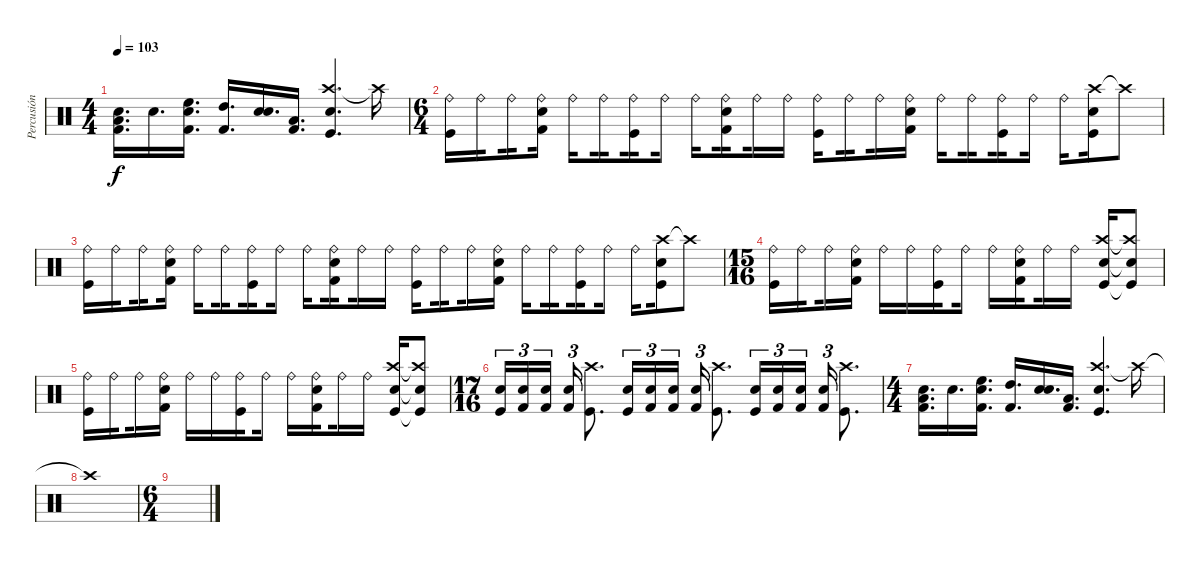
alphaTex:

\track ("Percusión" "Percusión") {instrument percussion}
\staff {score}
\articulation defaults
\ts (4 4)
\tempo 103
\clef neutral
\ks c
("Low Floor Tom (hit)" "Kick (hit) 2" "Snare (hit) 2").16{d dy f} "Snare (hit) 2".16{d} ("High Floor Tom (hit)" "Kick (hit) 2" "Snare (hit) 2").16{d} ("High Tom (hit)" "Kick (hit) 2").16{d} ("Snare (hit) 2" "Snare (hit) 2").16{d} ("Low Floor Tom (hit)" "Kick (hit) 2").16{d} ("Crash high (hit)" "Kick (hit)" "Snare (hit) 2").4{d} "Crash high (hit)"{t}.16 |
\ts (6 4)
("Ride (bell)" "Kick (hit)").16 "Ride (bell)".16{beam splitsecondary} "Ride (bell)".16{beam splitsecondary} ("Ride (bell)" "Snare (hit) 2" "Kick (hit) 2").16{beam splitsecondary} "Ride (bell)".16{beam splitsecondary} "Ride (bell)".16{beam splitsecondary} ("Ride (bell)" "Kick (hit)").16{beam splitsecondary} "Ride (bell)".16 "Ride (bell)".16{beam splitsecondary} ("Ride (bell)" "Snare (hit) 2" "Kick (hit) 2").16{beam splitsecondary} "Ride (bell)".16 "Ride (bell)".16 ("Ride (bell)" "Kick (hit)").16{beam splitsecondary} "Ride (bell)".16{beam splitsecondary} "Ride (bell)".16 ("Ride (bell)" "Snare (hit) 2" "Kick (hit) 2").16{beam splitsecondary} "Ride (bell)".16{beam splitsecondary} "Ride (bell)".16{beam splitsecondary} ("Ride (bell)" "Kick (hit)").16{beam splitsecondary} "Ride (bell)".16{beam splitsecondary} "Ride (bell)".16{beam splitsecondary} ("Crash high (hit)" "Snare (hit) 2" "Kick (hit)").16 "Crash high (hit)"{t}.8 |
("Ride (bell)" "Kick (hit)").16 "Ride (bell)".16{beam splitsecondary} "Ride (bell)".16{beam splitsecondary} ("Ride (bell)" "Snare (hit) 2" "Kick (hit) 2").16{beam splitsecondary} "Ride (bell)".16{beam splitsecondary} "Ride (bell)".16{beam splitsecondary} ("Ride (bell)" "Kick (hit)").16{beam splitsecondary} "Ride (bell)".16 "Ride (bell)".16{beam splitsecondary} ("Ride (bell)" "Snare (hit) 2" "Kick (hit) 2").16{beam splitsecondary} "Ride (bell)".16 "Ride (bell)".16 ("Ride (bell)" "Kick (hit)").16{beam splitsecondary} "Ride (bell)".16{beam splitsecondary} "Ride (bell)".16 ("Ride (bell)" "Snare (hit) 2" "Kick (hit) 2").16{beam splitsecondary} "Ride (bell)".16{beam splitsecondary} "Ride (bell)".16{beam splitsecondary} ("Ride (bell)" "Kick (hit)").16{beam splitsecondary} "Ride (bell)".16{beam splitsecondary} "Ride (bell)".16{beam splitsecondary} ("Crash high (hit)" "Snare (hit) 2" "Kick (hit)").16 "Crash high (hit)"{t}.8 |
\ts (15 16)
("Ride (bell)" "Kick (hit)").16 "Ride (bell)".16{beam splitsecondary} "Ride (bell)".16 ("Ride (bell)" "Snare (hit) 2" "Kick (hit) 2").16{beam splitsecondary} "Ride (bell)".16 "Ride (bell)".16 ("Ride (bell)" "Kick (hit)").16{beam splitsecondary} "Ride (bell)".16 "Ride (bell)".16 ("Ride (bell)" "Snare (hit) 2" "Kick (hit) 2").16{beam splitsecondary} "Ride (bell)".16 "Ride (bell)".16 ("Crash high (hit)" "Kick (hit)" "Snare (hit) 2").16 ("Crash high (hit)"{t} "Kick (hit)"{t} "Snare (hit) 2"{t}).8 |
("Ride (bell)" "Kick (hit)").16 "Ride (bell)".16{beam splitsecondary} "Ride (bell)".16 ("Ride (bell)" "Snare (hit) 2" "Kick (hit) 2").16{beam splitsecondary} "Ride (bell)".16 "Ride (bell)".16 ("Ride (bell)" "Kick (hit)").16{beam splitsecondary} "Ride (bell)".16 "Ride (bell)".16 ("Ride (bell)" "Snare (hit) 2" "Kick (hit) 2").16{beam splitsecondary} "Ride (bell)".16 "Ride (bell)".16 ("Crash high (hit)" "Kick (hit)" "Snare (hit) 2").16 ("Crash high (hit)"{t} "Kick (hit)"{t} "Snare (hit) 2"{t}).8 |
\ts (17 16)
("Snare (hit) 2" "Kick (hit)").16{tu (3 2)} ("Snare (hit) 2" "Kick (hit) 2").16{tu (3 2)} ("Snare (hit) 2" "Kick (hit) 2").16{tu (3 2)} ("Snare (hit) 2" "Kick (hit) 2").16{tu (3 2)} ("Crash high (hit)" "Kick (hit)").8{d} ("Snare (hit) 2" "Kick (hit)").16{tu (3 2)} ("Snare (hit) 2" "Kick (hit) 2").16{tu (3 2)} ("Snare (hit) 2" "Kick (hit) 2").16{tu (3 2)} ("Snare (hit) 2" "Kick (hit) 2").16{tu (3 2)} ("Crash high (hit)" "Kick (hit)").8{d} ("Snare (hit) 2" "Kick (hit)").16{tu (3 2)} ("Snare (hit) 2" "Kick (hit) 2").16{tu (3 2)} ("Snare (hit) 2" "Kick (hit) 2").16{tu (3 2)} ("Snare (hit) 2" "Kick (hit) 2").16{tu (3 2)} ("Crash high (hit)" "Kick (hit)").8{d} |
\ts (4 4)
("Low Floor Tom (hit)" "Kick (hit) 2" "Snare (hit) 2").16{d} "Snare (hit) 2".16{d} ("High Floor Tom (hit)" "Kick (hit) 2" "Snare (hit) 2").16{d} ("High Tom (hit)" "Kick (hit) 2").16{d} ("Snare (hit) 2" "Snare (hit) 2").16{d} ("Low Floor Tom (hit)" "Kick (hit) 2").16{d} ("Crash high (hit)" "Kick (hit)" "Snare (hit) 2").4{d} "Crash high (hit)"{t}.16 |
"Crash high (hit)"{t}.1 |
\ts (6 4)
